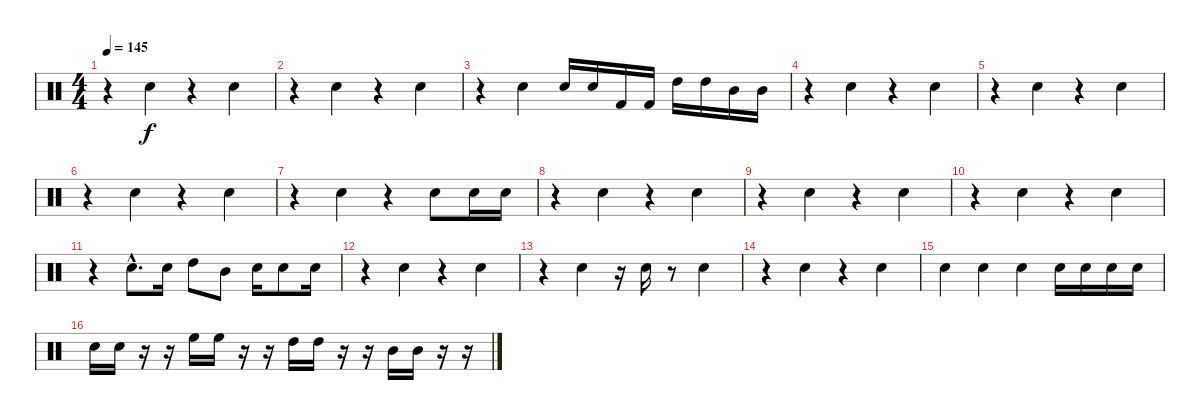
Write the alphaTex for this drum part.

\track "" {instrument percussion}
\staff {score}
\articulation defaults
\ts (4 4)
\tempo 145
\clef neutral
\ks c
r.4{dy f} "Electric Snare (hit)".4 r.4 "Electric Snare (hit)".4 |
r.4 "Electric Snare (hit)".4 r.4 "Electric Snare (hit)".4 |
r.4 "Electric Snare (hit)".4 "Electric Snare (hit)".16 "Electric Snare (hit)".16 "Kick (hit) 2".16 "Kick (hit) 2".16 "High Tom (hit)".16 "High Tom (hit)".16 "Mid Tom (hit)".16 "Mid Tom (hit)".16 |
r.4 "Electric Snare (hit)".4 r.4 "Electric Snare (hit)".4 |
r.4 "Electric Snare (hit)".4 r.4 "Electric Snare (hit)".4 |
r.4 "Electric Snare (hit)".4 r.4 "Electric Snare (hit)".4 |
r.4 "Electric Snare (hit)".4 r.4 "Electric Snare (hit)".8 "Electric Snare (hit)".16 "Electric Snare (hit)".16 |
r.4 "Electric Snare (hit)".4 r.4 "Electric Snare (hit)".4 |
r.4 "Electric Snare (hit)".4 r.4 "Electric Snare (hit)".4 |
r.4 "Electric Snare (hit)".4 r.4 "Electric Snare (hit)".4 |
r.4 "Electric Snare (hit)"{hac}.8{d} "Electric Snare (hit)".16 "High Tom (hit)".8 "Mid Tom (hit)".8 "Electric Snare (hit)".16 "Electric Snare (hit)".8 "Electric Snare (hit)".16 |
r.4 "Electric Snare (hit)".4 r.4 "Electric Snare (hit)".4 |
r.4 "Electric Snare (hit)".4 r.16 "Electric Snare (hit)".16 r.8 "Electric Snare (hit)".4 |
r.4 "Electric Snare (hit)".4 r.4 "Electric Snare (hit)".4 |
"Electric Snare (hit)".4 "Electric Snare (hit)".4 "Electric Snare (hit)".4 "Electric Snare (hit)".16 "Electric Snare (hit)".16 "Electric Snare (hit)".16 "Electric Snare (hit)".16 |
"Electric Snare (hit)".16 "Electric Snare (hit)".16 r.16 r.16 "High Floor Tom (hit)".16 "High Floor Tom (hit)".16 r.16 r.16 "High Tom (hit)".16 "High Tom (hit)".16 r.16 r.16 "Mid Tom (hit)".16 "Mid Tom (hit)".16 r.16 r.16
